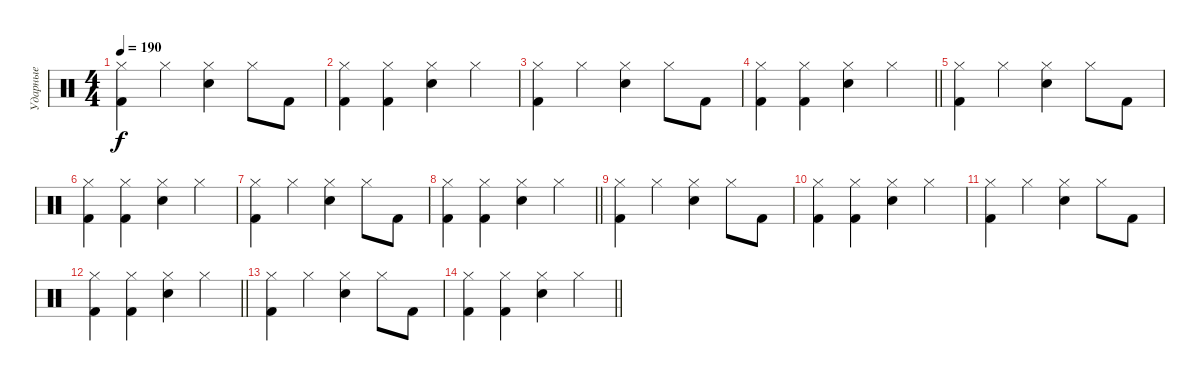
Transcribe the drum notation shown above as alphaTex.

\track ("Ударные" "Ударные") {instrument percussion}
\staff {score}
\articulation defaults
\ts (4 4)
\tempo 190
\clef neutral
\ks c
("Kick (hit) 2" "Hi-Hat (closed)").4{dy f} "Hi-Hat (closed)".4 ("Hand Clap (hit)" "Hi-Hat (closed)").4 "Hi-Hat (closed)".8 "Kick (hit) 2".8 |
("Kick (hit) 2" "Hi-Hat (closed)").4 ("Kick (hit) 2" "Hi-Hat (closed)").4 ("Hand Clap (hit)" "Hi-Hat (closed)").4 "Hi-Hat (closed)".4 |
("Kick (hit) 2" "Hi-Hat (closed)").4 "Hi-Hat (closed)".4 ("Hand Clap (hit)" "Hi-Hat (closed)").4 "Hi-Hat (closed)".8 "Kick (hit) 2".8 |
\barLineRight lightlight
("Kick (hit) 2" "Hi-Hat (closed)").4 ("Kick (hit) 2" "Hi-Hat (closed)").4 ("Hand Clap (hit)" "Hi-Hat (closed)").4 "Hi-Hat (closed)".4 |
("Kick (hit) 2" "Hi-Hat (closed)").4 "Hi-Hat (closed)".4 ("Hand Clap (hit)" "Hi-Hat (closed)").4 "Hi-Hat (closed)".8 "Kick (hit) 2".8 |
("Kick (hit) 2" "Hi-Hat (closed)").4 ("Kick (hit) 2" "Hi-Hat (closed)").4 ("Hand Clap (hit)" "Hi-Hat (closed)").4 "Hi-Hat (closed)".4 |
("Kick (hit) 2" "Hi-Hat (closed)").4 "Hi-Hat (closed)".4 ("Hand Clap (hit)" "Hi-Hat (closed)").4 "Hi-Hat (closed)".8 "Kick (hit) 2".8 |
\barLineRight lightlight
("Kick (hit) 2" "Hi-Hat (closed)").4 ("Kick (hit) 2" "Hi-Hat (closed)").4 ("Hand Clap (hit)" "Hi-Hat (closed)").4 "Hi-Hat (closed)".4 |
("Kick (hit) 2" "Hi-Hat (closed)").4 "Hi-Hat (closed)".4 ("Hand Clap (hit)" "Hi-Hat (closed)").4 "Hi-Hat (closed)".8 "Kick (hit) 2".8 |
("Kick (hit) 2" "Hi-Hat (closed)").4 ("Kick (hit) 2" "Hi-Hat (closed)").4 ("Hand Clap (hit)" "Hi-Hat (closed)").4 "Hi-Hat (closed)".4 |
("Kick (hit) 2" "Hi-Hat (closed)").4 "Hi-Hat (closed)".4 ("Hand Clap (hit)" "Hi-Hat (closed)").4 "Hi-Hat (closed)".8 "Kick (hit) 2".8 |
\barLineRight lightlight
("Kick (hit) 2" "Hi-Hat (closed)").4 ("Kick (hit) 2" "Hi-Hat (closed)").4 ("Hand Clap (hit)" "Hi-Hat (closed)").4 "Hi-Hat (closed)".4 |
("Kick (hit) 2" "Hi-Hat (closed)").4 "Hi-Hat (closed)".4 ("Hand Clap (hit)" "Hi-Hat (closed)").4 "Hi-Hat (closed)".8 "Kick (hit) 2".8 |
\barLineRight lightlight
("Kick (hit) 2" "Hi-Hat (closed)").4 ("Kick (hit) 2" "Hi-Hat (closed)").4 ("Hand Clap (hit)" "Hi-Hat (closed)").4 "Hi-Hat (closed)".4
